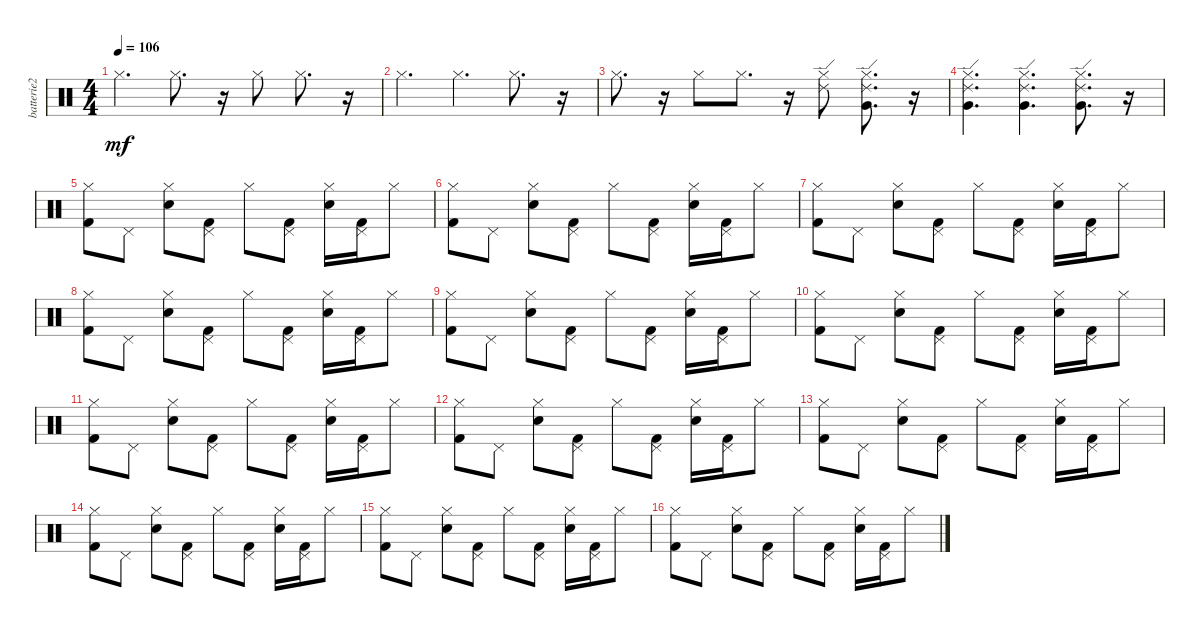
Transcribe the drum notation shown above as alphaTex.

\track ("batterie2" "batterie2") {instrument percussion}
\staff {score}
\articulation defaults
\ts (4 4)
\tempo 106
\clef neutral
\ks c "Hi-Hat (closed)".4{d dy mf} "Hi-Hat (closed)".8{d}
r.16 "Hi-Hat (closed)".8 "Hi-Hat (closed)".8{d} r.16 |
"Hi-Hat (closed)".4{d} "Hi-Hat (closed)".4{d} "Hi-Hat (closed)".8{d} r.16 |
"Hi-Hat (closed)".8{d} r.16 "Hi-Hat (closed)".8 "Hi-Hat (closed)".8{d} r.16 ("Hi-Hat (closed)" "Ride (edge) 2").8 ("Hi-Hat (closed)" "Very Low Tom (hit)" "Ride (edge) 2").8{d} r.16 |
("Hi-Hat (closed)" "Very Low Tom (hit)" "Ride (edge) 2").4{d} ("Hi-Hat (closed)" "Very Low Tom (hit)" "Ride (edge) 2").4{d} ("Hi-Hat (closed)" "Very Low Tom (hit)" "Ride (edge) 2").8{d} r.16 |
("Kick (hit) 2" "Hi-Hat (closed)").8 "Pedal Hi-Hat (hit)".8 ("Snare (hit) 2" "Hi-Hat (closed)").8 ("Kick (hit) 2" "Pedal Hi-Hat (hit)").8 "Hi-Hat (closed)".8 ("Kick (hit) 2" "Pedal Hi-Hat (hit)").8 ("Snare (hit) 2" "Hi-Hat (closed)").16 ("Kick (hit) 2" "Pedal Hi-Hat (hit)").16 "Hi-Hat (closed)".8 |
("Kick (hit) 2" "Hi-Hat (closed)").8 "Pedal Hi-Hat (hit)".8 ("Snare (hit) 2" "Hi-Hat (closed)").8 ("Kick (hit) 2" "Pedal Hi-Hat (hit)").8 "Hi-Hat (closed)".8 ("Kick (hit) 2" "Pedal Hi-Hat (hit)").8 ("Snare (hit) 2" "Hi-Hat (closed)").16 ("Kick (hit) 2" "Pedal Hi-Hat (hit)").16 "Hi-Hat (closed)".8 |
("Kick (hit) 2" "Hi-Hat (closed)").8 "Pedal Hi-Hat (hit)".8 ("Snare (hit) 2" "Hi-Hat (closed)").8 ("Kick (hit) 2" "Pedal Hi-Hat (hit)").8 "Hi-Hat (closed)".8 ("Kick (hit) 2" "Pedal Hi-Hat (hit)").8 ("Snare (hit) 2" "Hi-Hat (closed)").16 ("Kick (hit) 2" "Pedal Hi-Hat (hit)").16 "Hi-Hat (closed)".8 |
("Kick (hit) 2" "Hi-Hat (closed)").8 "Pedal Hi-Hat (hit)".8 ("Snare (hit) 2" "Hi-Hat (closed)").8 ("Kick (hit) 2" "Pedal Hi-Hat (hit)").8 "Hi-Hat (closed)".8 ("Kick (hit) 2" "Pedal Hi-Hat (hit)").8 ("Snare (hit) 2" "Hi-Hat (closed)").16 ("Kick (hit) 2" "Pedal Hi-Hat (hit)").16 "Hi-Hat (closed)".8 |
("Kick (hit) 2" "Hi-Hat (closed)").8 "Pedal Hi-Hat (hit)".8 ("Snare (hit) 2" "Hi-Hat (closed)").8 ("Kick (hit) 2" "Pedal Hi-Hat (hit)").8 "Hi-Hat (closed)".8 ("Kick (hit) 2" "Pedal Hi-Hat (hit)").8 ("Snare (hit) 2" "Hi-Hat (closed)").16 ("Kick (hit) 2" "Pedal Hi-Hat (hit)").16 "Hi-Hat (closed)".8 |
("Kick (hit) 2" "Hi-Hat (closed)").8 "Pedal Hi-Hat (hit)".8 ("Snare (hit) 2" "Hi-Hat (closed)").8 ("Kick (hit) 2" "Pedal Hi-Hat (hit)").8 "Hi-Hat (closed)".8 ("Kick (hit) 2" "Pedal Hi-Hat (hit)").8 ("Snare (hit) 2" "Hi-Hat (closed)").16 ("Kick (hit) 2" "Pedal Hi-Hat (hit)").16 "Hi-Hat (closed)".8 |
("Kick (hit) 2" "Hi-Hat (closed)").8 "Pedal Hi-Hat (hit)".8 ("Snare (hit) 2" "Hi-Hat (closed)").8 ("Kick (hit) 2" "Pedal Hi-Hat (hit)").8 "Hi-Hat (closed)".8 ("Kick (hit) 2" "Pedal Hi-Hat (hit)").8 ("Snare (hit) 2" "Hi-Hat (closed)").16 ("Kick (hit) 2" "Pedal Hi-Hat (hit)").16 "Hi-Hat (closed)".8 |
("Kick (hit) 2" "Hi-Hat (closed)").8 "Pedal Hi-Hat (hit)".8 ("Snare (hit) 2" "Hi-Hat (closed)").8 ("Kick (hit) 2" "Pedal Hi-Hat (hit)").8 "Hi-Hat (closed)".8 ("Kick (hit) 2" "Pedal Hi-Hat (hit)").8 ("Snare (hit) 2" "Hi-Hat (closed)").16 ("Kick (hit) 2" "Pedal Hi-Hat (hit)").16 "Hi-Hat (closed)".8 |
("Kick (hit) 2" "Hi-Hat (closed)").8 "Pedal Hi-Hat (hit)".8 ("Snare (hit) 2" "Hi-Hat (closed)").8 ("Kick (hit) 2" "Pedal Hi-Hat (hit)").8 "Hi-Hat (closed)".8 ("Kick (hit) 2" "Pedal Hi-Hat (hit)").8 ("Snare (hit) 2" "Hi-Hat (closed)").16 ("Kick (hit) 2" "Pedal Hi-Hat (hit)").16 "Hi-Hat (closed)".8 |
("Kick (hit) 2" "Hi-Hat (closed)").8 "Pedal Hi-Hat (hit)".8 ("Snare (hit) 2" "Hi-Hat (closed)").8 ("Kick (hit) 2" "Pedal Hi-Hat (hit)").8 "Hi-Hat (closed)".8 ("Kick (hit) 2" "Pedal Hi-Hat (hit)").8 ("Snare (hit) 2" "Hi-Hat (closed)").16 ("Kick (hit) 2" "Pedal Hi-Hat (hit)").16 "Hi-Hat (closed)".8 |
("Kick (hit) 2" "Hi-Hat (closed)").8 "Pedal Hi-Hat (hit)".8 ("Snare (hit) 2" "Hi-Hat (closed)").8 ("Kick (hit) 2" "Pedal Hi-Hat (hit)").8 "Hi-Hat (closed)".8 ("Kick (hit) 2" "Pedal Hi-Hat (hit)").8 ("Snare (hit) 2" "Hi-Hat (closed)").16 ("Kick (hit) 2" "Pedal Hi-Hat (hit)").16 "Hi-Hat (closed)".8 |
("Kick (hit) 2" "Hi-Hat (closed)").8 "Pedal Hi-Hat (hit)".8 ("Snare (hit) 2" "Hi-Hat (closed)").8 ("Kick (hit) 2" "Pedal Hi-Hat (hit)").8 "Hi-Hat (closed)".8 ("Kick (hit) 2" "Pedal Hi-Hat (hit)").8 ("Snare (hit) 2" "Hi-Hat (closed)").16 ("Kick (hit) 2" "Pedal Hi-Hat (hit)").16 "Hi-Hat (closed)".8
